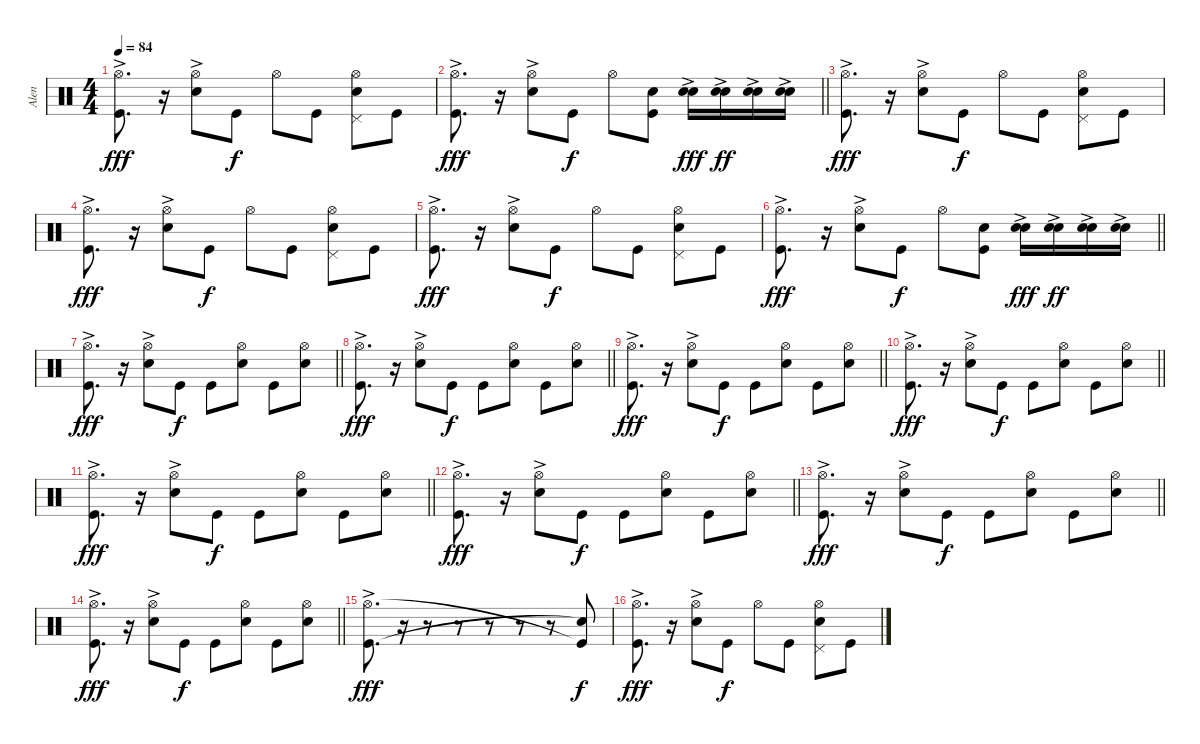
\track ("Alen" "Alen") {instrument percussion}
\staff {score}
\articulation defaults
\ts (4 4)
\tempo 84
\clef neutral
\ks c
("Hi-Hat (open)"{ac} "Kick (hit)").8{d dy fff} r.16 ("Hi-Hat (open)" "Snare (hit) 2"{ac}).8 "Kick (hit)".8{dy f} "Hi-Hat (open)".8 "Kick (hit)".8 ("Pedal Hi-Hat (hit)" "Snare (hit) 2" "Hi-Hat (open)").8 "Kick (hit)".8 |
\barLineRight lightlight
("Hi-Hat (open)"{ac} "Kick (hit)").8{d dy fff} r.16 ("Hi-Hat (open)" "Snare (hit) 2"{ac}).8 "Kick (hit)".8{dy f} "Hi-Hat (open)".8 ("Electric Snare (hit)" "Kick (hit)").8 ("Snare (hit) 2"{ac} "Electric Snare (hit)"{ac}).16{dy fff} ("Snare (hit) 2"{ac} "Electric Snare (hit)").16{dy ff} ("Snare (hit) 2"{ac} "Electric Snare (hit)").16 ("Snare (hit) 2"{ac} "Electric Snare (hit)").16 |
("Hi-Hat (open)"{ac} "Kick (hit)").8{d dy fff} r.16 ("Hi-Hat (open)" "Snare (hit) 2"{ac}).8 "Kick (hit)".8{dy f} "Hi-Hat (open)".8 "Kick (hit)".8 ("Pedal Hi-Hat (hit)" "Snare (hit) 2" "Hi-Hat (open)").8 "Kick (hit)".8 |
("Hi-Hat (open)"{ac} "Kick (hit)").8{d dy fff} r.16 ("Hi-Hat (open)" "Snare (hit) 2"{ac}).8 "Kick (hit)".8{dy f} "Hi-Hat (open)".8 "Kick (hit)".8 ("Pedal Hi-Hat (hit)" "Snare (hit) 2" "Hi-Hat (open)").8 "Kick (hit)".8 |
("Hi-Hat (open)"{ac} "Kick (hit)").8{d dy fff} r.16 ("Hi-Hat (open)" "Snare (hit) 2"{ac}).8 "Kick (hit)".8{dy f} "Hi-Hat (open)".8 "Kick (hit)".8 ("Pedal Hi-Hat (hit)" "Snare (hit) 2" "Hi-Hat (open)").8 "Kick (hit)".8 |
\barLineRight lightlight
("Hi-Hat (open)"{ac} "Kick (hit)").8{d dy fff} r.16 ("Hi-Hat (open)" "Snare (hit) 2"{ac}).8 "Kick (hit)".8{dy f} "Hi-Hat (open)".8 ("Electric Snare (hit)" "Kick (hit)").8 ("Snare (hit) 2"{ac} "Electric Snare (hit)"{ac}).16{dy fff} ("Snare (hit) 2"{ac} "Electric Snare (hit)").16{dy ff} ("Snare (hit) 2"{ac} "Electric Snare (hit)").16 ("Snare (hit) 2"{ac} "Electric Snare (hit)").16 |
\barLineRight lightlight
("Hi-Hat (open)"{ac} "Kick (hit)").8{d dy fff} r.16 ("Hi-Hat (open)" "Snare (hit) 2"{ac}).8 "Kick (hit)".8{dy f} "Kick (hit)".8 ("Electric Snare (hit)" "Hi-Hat (open)").8 "Kick (hit)".8 ("Electric Snare (hit)" "Hi-Hat (open)").8 |
\barLineRight lightlight
("Hi-Hat (open)"{ac} "Kick (hit)").8{d dy fff} r.16 ("Hi-Hat (open)" "Snare (hit) 2"{ac}).8 "Kick (hit)".8{dy f} "Kick (hit)".8 ("Electric Snare (hit)" "Hi-Hat (open)").8 "Kick (hit)".8 ("Electric Snare (hit)" "Hi-Hat (open)").8 |
\barLineRight lightlight
("Hi-Hat (open)"{ac} "Kick (hit)").8{d dy fff} r.16 ("Hi-Hat (open)" "Snare (hit) 2"{ac}).8 "Kick (hit)".8{dy f} "Kick (hit)".8 ("Electric Snare (hit)" "Hi-Hat (open)").8 "Kick (hit)".8 ("Electric Snare (hit)" "Hi-Hat (open)").8 |
\barLineRight lightlight
("Hi-Hat (open)"{ac} "Kick (hit)").8{d dy fff} r.16 ("Hi-Hat (open)" "Snare (hit) 2"{ac}).8 "Kick (hit)".8{dy f} "Kick (hit)".8 ("Electric Snare (hit)" "Hi-Hat (open)").8 "Kick (hit)".8 ("Electric Snare (hit)" "Hi-Hat (open)").8 |
\barLineRight lightlight
("Hi-Hat (open)"{ac} "Kick (hit)").8{d dy fff} r.16 ("Hi-Hat (open)" "Snare (hit) 2"{ac}).8 "Kick (hit)".8{dy f} "Kick (hit)".8 ("Electric Snare (hit)" "Hi-Hat (open)").8 "Kick (hit)".8 ("Electric Snare (hit)" "Hi-Hat (open)").8 |
\barLineRight lightlight
("Hi-Hat (open)"{ac} "Kick (hit)").8{d dy fff} r.16 ("Hi-Hat (open)" "Snare (hit) 2"{ac}).8 "Kick (hit)".8{dy f} "Kick (hit)".8 ("Electric Snare (hit)" "Hi-Hat (open)").8 "Kick (hit)".8 ("Electric Snare (hit)" "Hi-Hat (open)").8 |
\barLineRight lightlight
("Hi-Hat (open)"{ac} "Kick (hit)").8{d dy fff} r.16 ("Hi-Hat (open)" "Snare (hit) 2"{ac}).8 "Kick (hit)".8{dy f} "Kick (hit)".8 ("Electric Snare (hit)" "Hi-Hat (open)").8 "Kick (hit)".8 ("Electric Snare (hit)" "Hi-Hat (open)").8 |
\barLineRight lightlight
("Hi-Hat (open)"{ac} "Kick (hit)").8{d dy fff} r.16 ("Hi-Hat (open)" "Snare (hit) 2"{ac}).8 "Kick (hit)".8{dy f} "Kick (hit)".8 ("Electric Snare (hit)" "Hi-Hat (open)").8 "Kick (hit)".8 ("Electric Snare (hit)" "Hi-Hat (open)").8 |
("Hi-Hat (open)"{ac} "Kick (hit)").8{d dy fff} r.16 r.8 r.8 r.8 r.8 r.8 ("Kick (hit)"{t} "Snare (hit)"{t}).8{dy f} |
("Hi-Hat (open)"{ac} "Kick (hit)").8{d dy fff} r.16 ("Hi-Hat (open)" "Snare (hit) 2"{ac}).8 "Kick (hit)".8{dy f} "Hi-Hat (open)".8 "Kick (hit)".8 ("Pedal Hi-Hat (hit)" "Snare (hit) 2" "Hi-Hat (open)").8 "Kick (hit)".8
